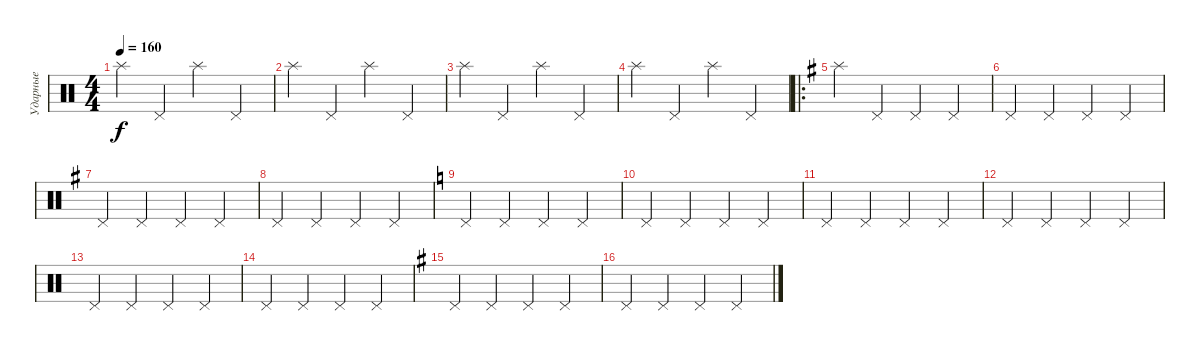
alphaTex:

\track ("Ударные" "Ударные") {instrument percussion}
\staff {score}
\articulation defaults
\ts (4 4)
\tempo 160
\clef neutral
\ks c "Splash (hit)".4{dy f} "Pedal Hi-Hat (hit)".4 "Splash (hit)".4 "Pedal Hi-Hat (hit)".4
|
"Splash (hit)".4 "Pedal Hi-Hat (hit)".4 "Splash (hit)".4 "Pedal Hi-Hat (hit)".4 |
"Splash (hit)".4 "Pedal Hi-Hat (hit)".4 "Splash (hit)".4 "Pedal Hi-Hat (hit)".4 |
"Splash (hit)".4 "Pedal Hi-Hat (hit)".4 "Splash (hit)".4 "Pedal Hi-Hat (hit)".4 |
\ro
\ks g "Splash (hit)".4 "Pedal Hi-Hat (hit)".4 "Pedal Hi-Hat (hit)".4 "Pedal Hi-Hat (hit)".4
|
"Pedal Hi-Hat (hit)".4 "Pedal Hi-Hat (hit)".4 "Pedal Hi-Hat (hit)".4 "Pedal Hi-Hat (hit)".4 |
"Pedal Hi-Hat (hit)".4 "Pedal Hi-Hat (hit)".4 "Pedal Hi-Hat (hit)".4 "Pedal Hi-Hat (hit)".4 |
"Pedal Hi-Hat (hit)".4 "Pedal Hi-Hat (hit)".4 "Pedal Hi-Hat (hit)".4 "Pedal Hi-Hat (hit)".4 |
\ks c "Pedal Hi-Hat (hit)".4 "Pedal Hi-Hat (hit)".4 "Pedal Hi-Hat (hit)".4 "Pedal Hi-Hat (hit)".4
|
"Pedal Hi-Hat (hit)".4 "Pedal Hi-Hat (hit)".4 "Pedal Hi-Hat (hit)".4 "Pedal Hi-Hat (hit)".4 |
"Pedal Hi-Hat (hit)".4 "Pedal Hi-Hat (hit)".4 "Pedal Hi-Hat (hit)".4 "Pedal Hi-Hat (hit)".4 |
"Pedal Hi-Hat (hit)".4 "Pedal Hi-Hat (hit)".4 "Pedal Hi-Hat (hit)".4 "Pedal Hi-Hat (hit)".4 |
"Pedal Hi-Hat (hit)".4 "Pedal Hi-Hat (hit)".4 "Pedal Hi-Hat (hit)".4 "Pedal Hi-Hat (hit)".4 |
"Pedal Hi-Hat (hit)".4 "Pedal Hi-Hat (hit)".4 "Pedal Hi-Hat (hit)".4 "Pedal Hi-Hat (hit)".4 |
\ks g "Pedal Hi-Hat (hit)".4 "Pedal Hi-Hat (hit)".4 "Pedal Hi-Hat (hit)".4 "Pedal Hi-Hat (hit)".4
|
"Pedal Hi-Hat (hit)".4 "Pedal Hi-Hat (hit)".4 "Pedal Hi-Hat (hit)".4 "Pedal Hi-Hat (hit)".4
